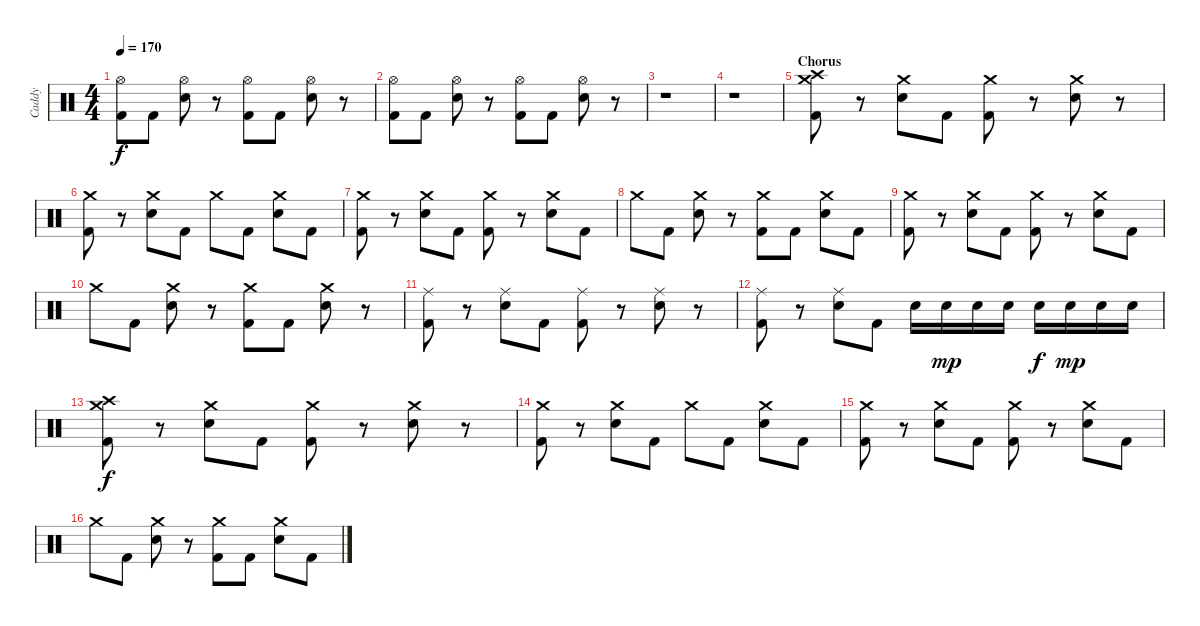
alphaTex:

\track ("Caddy" "Caddy") {instrument percussion}
\staff {score}
\articulation defaults
\ts (4 4)
\tempo 170
\clef neutral
\ks c
("Hi-Hat (open)" "Kick (hit) 2").8{dy f} "Kick (hit) 2".8 ("Hi-Hat (open)" "Electric Snare (hit)").8 r.8 ("Hi-Hat (open)" "Kick (hit) 2").8 "Kick (hit) 2".8 ("Hi-Hat (open)" "Electric Snare (hit)").8 r.8 |
("Hi-Hat (open)" "Kick (hit) 2").8 "Kick (hit) 2".8 ("Hi-Hat (open)" "Electric Snare (hit)").8 r.8 ("Hi-Hat (open)" "Kick (hit) 2").8 "Kick (hit) 2".8 ("Hi-Hat (open)" "Electric Snare (hit)").8 r.8 |
r.1 |
r.1 |
\section ("" "Chorus")
("Crash medium (hit)" "Crash high (hit)" "Kick (hit) 2").8 r.8 ("Crash medium (hit)" "Electric Snare (hit)").8 "Kick (hit) 2".8 ("Crash medium (hit)" "Kick (hit) 2").8 r.8 ("Crash medium (hit)" "Electric Snare (hit)").8 r.8 |
("Crash medium (hit)" "Kick (hit) 2").8 r.8 ("Crash medium (hit)" "Electric Snare (hit)").8 "Kick (hit) 2".8 "Crash medium (hit)".8 "Kick (hit) 2".8 ("Crash medium (hit)" "Electric Snare (hit)").8 "Kick (hit) 2".8 |
("Crash medium (hit)" "Kick (hit) 2").8 r.8 ("Crash medium (hit)" "Electric Snare (hit)").8 "Kick (hit) 2".8 ("Crash medium (hit)" "Kick (hit) 2").8 r.8 ("Crash medium (hit)" "Electric Snare (hit)").8 "Kick (hit) 2".8 |
"Crash medium (hit)".8 "Kick (hit) 2".8 ("Crash medium (hit)" "Electric Snare (hit)").8 r.8 ("Crash medium (hit)" "Kick (hit) 2").8 "Kick (hit) 2".8 ("Crash medium (hit)" "Electric Snare (hit)").8 "Kick (hit) 2".8 |
("Crash medium (hit)" "Kick (hit) 2").8 r.8 ("Crash medium (hit)" "Electric Snare (hit)").8 "Kick (hit) 2".8 ("Crash medium (hit)" "Kick (hit) 2").8 r.8 ("Crash medium (hit)" "Electric Snare (hit)").8 "Kick (hit) 2".8 |
"Crash medium (hit)".8 "Kick (hit) 2".8 ("Crash medium (hit)" "Electric Snare (hit)").8 r.8 ("Crash medium (hit)" "Kick (hit) 2").8 "Kick (hit) 2".8 ("Crash medium (hit)" "Electric Snare (hit)").8 r.8 |
("Ride (middle)" "Kick (hit) 2").8 r.8 ("Ride (middle)" "Electric Snare (hit)").8 "Kick (hit) 2".8 ("Ride (middle)" "Kick (hit) 2").8 r.8 ("Ride (middle)" "Electric Snare (hit)").8 r.8 |
("Ride (middle)" "Kick (hit) 2").8 r.8 ("Ride (middle)" "Electric Snare (hit)").8 "Kick (hit) 2".8 "Electric Snare (hit)".16 "Electric Snare (hit)".16{dy mp} "Electric Snare (hit)".16 "Electric Snare (hit)".16 "Electric Snare (hit)".16{dy f} "Electric Snare (hit)".16{dy mp} "Electric Snare (hit)".16 "Electric Snare (hit)".16 |
("Crash medium (hit)" "Crash high (hit)" "Kick (hit) 2").8{dy f} r.8 ("Crash medium (hit)" "Electric Snare (hit)").8 "Kick (hit) 2".8 ("Crash medium (hit)" "Kick (hit) 2").8 r.8 ("Crash medium (hit)" "Electric Snare (hit)").8 r.8 |
("Crash medium (hit)" "Kick (hit) 2").8 r.8 ("Crash medium (hit)" "Electric Snare (hit)").8 "Kick (hit) 2".8 "Crash medium (hit)".8 "Kick (hit) 2".8 ("Crash medium (hit)" "Electric Snare (hit)").8 "Kick (hit) 2".8 |
("Crash medium (hit)" "Kick (hit) 2").8 r.8 ("Crash medium (hit)" "Electric Snare (hit)").8 "Kick (hit) 2".8 ("Crash medium (hit)" "Kick (hit) 2").8 r.8 ("Crash medium (hit)" "Electric Snare (hit)").8 "Kick (hit) 2".8 |
"Crash medium (hit)".8 "Kick (hit) 2".8 ("Crash medium (hit)" "Electric Snare (hit)").8 r.8 ("Crash medium (hit)" "Kick (hit) 2").8 "Kick (hit) 2".8 ("Crash medium (hit)" "Electric Snare (hit)").8 "Kick (hit) 2".8
